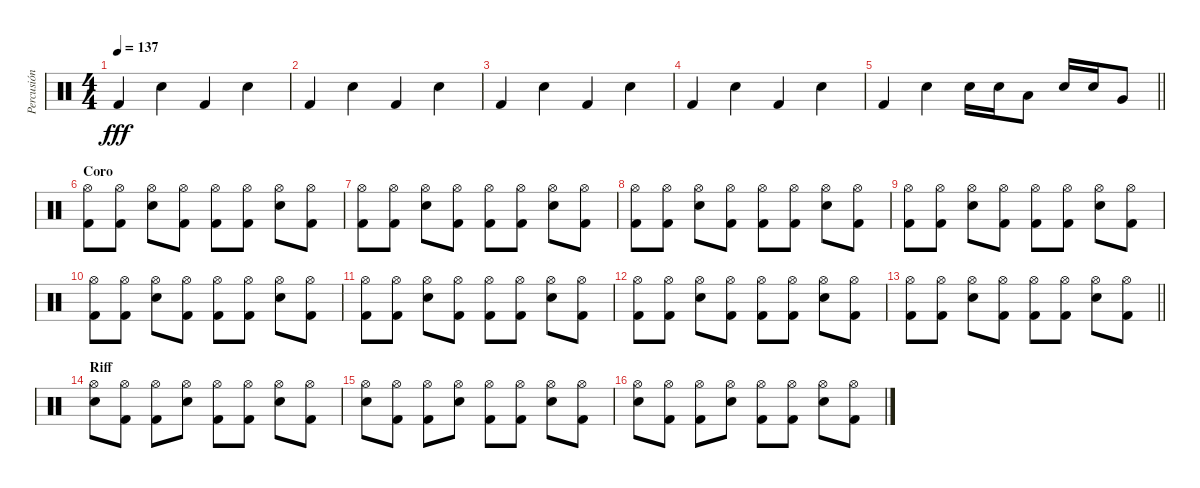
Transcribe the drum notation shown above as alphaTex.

\track ("Percusión" "Percusión") {instrument percussion}
\staff {score}
\articulation defaults
\ts (4 4)
\tempo 137
\clef neutral
\ks c "Kick (hit) 2".4{dy fff} "Electric Snare (hit)".4 "Kick (hit) 2".4 "Electric Snare (hit)".4
|
"Kick (hit) 2".4 "Electric Snare (hit)".4 "Kick (hit) 2".4 "Electric Snare (hit)".4 |
"Kick (hit) 2".4 "Electric Snare (hit)".4 "Kick (hit) 2".4 "Electric Snare (hit)".4 |
"Kick (hit) 2".4 "Electric Snare (hit)".4 "Kick (hit) 2".4 "Electric Snare (hit)".4 |
\barLineRight lightlight "Kick (hit) 2".4 "Electric Snare (hit)".4 "Snare (hit) 2".16 "Snare (hit) 2".16 "Low Floor Tom (hit)".8 "Snare (hit) 2".16 "Snare (hit) 2".16 "Very Low Tom (hit)".8
|
\section ("" "Coro")
("Hi-Hat (open)" "Kick (hit) 2").8 ("Hi-Hat (open)" "Kick (hit) 2").8 ("Hi-Hat (open)" "Electric Snare (hit)").8 ("Hi-Hat (open)" "Kick (hit) 2").8 ("Hi-Hat (open)" "Kick (hit) 2").8 ("Hi-Hat (open)" "Kick (hit) 2").8 ("Hi-Hat (open)" "Electric Snare (hit)").8 ("Hi-Hat (open)" "Kick (hit) 2").8 |
("Hi-Hat (open)" "Kick (hit) 2").8 ("Hi-Hat (open)" "Kick (hit) 2").8 ("Hi-Hat (open)" "Electric Snare (hit)").8 ("Hi-Hat (open)" "Kick (hit) 2").8 ("Hi-Hat (open)" "Kick (hit) 2").8 ("Hi-Hat (open)" "Kick (hit) 2").8 ("Hi-Hat (open)" "Electric Snare (hit)").8 ("Hi-Hat (open)" "Kick (hit) 2").8 |
("Hi-Hat (open)" "Kick (hit) 2").8 ("Hi-Hat (open)" "Kick (hit) 2").8 ("Hi-Hat (open)" "Electric Snare (hit)").8 ("Hi-Hat (open)" "Kick (hit) 2").8 ("Hi-Hat (open)" "Kick (hit) 2").8 ("Hi-Hat (open)" "Kick (hit) 2").8 ("Hi-Hat (open)" "Electric Snare (hit)").8 ("Hi-Hat (open)" "Kick (hit) 2").8 |
("Hi-Hat (open)" "Kick (hit) 2").8 ("Hi-Hat (open)" "Kick (hit) 2").8 ("Hi-Hat (open)" "Electric Snare (hit)").8 ("Hi-Hat (open)" "Kick (hit) 2").8 ("Hi-Hat (open)" "Kick (hit) 2").8 ("Hi-Hat (open)" "Kick (hit) 2").8 ("Hi-Hat (open)" "Electric Snare (hit)").8 ("Hi-Hat (open)" "Kick (hit) 2").8 |
("Hi-Hat (open)" "Kick (hit) 2").8 ("Hi-Hat (open)" "Kick (hit) 2").8 ("Hi-Hat (open)" "Electric Snare (hit)").8 ("Hi-Hat (open)" "Kick (hit) 2").8 ("Hi-Hat (open)" "Kick (hit) 2").8 ("Hi-Hat (open)" "Kick (hit) 2").8 ("Hi-Hat (open)" "Electric Snare (hit)").8 ("Hi-Hat (open)" "Kick (hit) 2").8 |
("Hi-Hat (open)" "Kick (hit) 2").8 ("Hi-Hat (open)" "Kick (hit) 2").8 ("Hi-Hat (open)" "Electric Snare (hit)").8 ("Hi-Hat (open)" "Kick (hit) 2").8 ("Hi-Hat (open)" "Kick (hit) 2").8 ("Hi-Hat (open)" "Kick (hit) 2").8 ("Hi-Hat (open)" "Electric Snare (hit)").8 ("Hi-Hat (open)" "Kick (hit) 2").8 |
("Hi-Hat (open)" "Kick (hit) 2").8 ("Hi-Hat (open)" "Kick (hit) 2").8 ("Hi-Hat (open)" "Electric Snare (hit)").8 ("Hi-Hat (open)" "Kick (hit) 2").8 ("Hi-Hat (open)" "Kick (hit) 2").8 ("Hi-Hat (open)" "Kick (hit) 2").8 ("Hi-Hat (open)" "Electric Snare (hit)").8 ("Hi-Hat (open)" "Kick (hit) 2").8 |
\barLineRight lightlight
("Hi-Hat (open)" "Kick (hit) 2").8 ("Hi-Hat (open)" "Kick (hit) 2").8 ("Hi-Hat (open)" "Electric Snare (hit)").8 ("Hi-Hat (open)" "Kick (hit) 2").8 ("Hi-Hat (open)" "Kick (hit) 2").8 ("Hi-Hat (open)" "Kick (hit) 2").8 ("Hi-Hat (open)" "Electric Snare (hit)").8 ("Hi-Hat (open)" "Kick (hit) 2").8 |
\section ("" "Riff")
("Hi-Hat (open)" "Electric Snare (hit)").8 ("Hi-Hat (open)" "Kick (hit) 2").8 ("Hi-Hat (open)" "Kick (hit) 2").8 ("Hi-Hat (open)" "Electric Snare (hit)").8 ("Hi-Hat (open)" "Kick (hit) 2").8 ("Hi-Hat (open)" "Kick (hit) 2").8 ("Hi-Hat (open)" "Electric Snare (hit)").8 ("Hi-Hat (open)" "Kick (hit) 2").8 |
("Hi-Hat (open)" "Electric Snare (hit)").8 ("Hi-Hat (open)" "Kick (hit) 2").8 ("Hi-Hat (open)" "Kick (hit) 2").8 ("Hi-Hat (open)" "Electric Snare (hit)").8 ("Hi-Hat (open)" "Kick (hit) 2").8 ("Hi-Hat (open)" "Kick (hit) 2").8 ("Hi-Hat (open)" "Electric Snare (hit)").8 ("Hi-Hat (open)" "Kick (hit) 2").8 |
("Hi-Hat (open)" "Electric Snare (hit)").8 ("Hi-Hat (open)" "Kick (hit) 2").8 ("Hi-Hat (open)" "Kick (hit) 2").8 ("Hi-Hat (open)" "Electric Snare (hit)").8 ("Hi-Hat (open)" "Kick (hit) 2").8 ("Hi-Hat (open)" "Kick (hit) 2").8 ("Hi-Hat (open)" "Electric Snare (hit)").8 ("Hi-Hat (open)" "Kick (hit) 2").8
